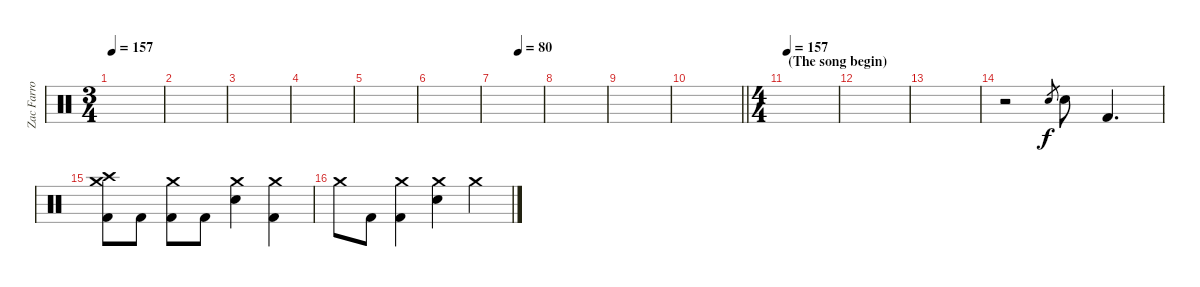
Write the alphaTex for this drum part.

\track ("Zac Farro | Drum" "Zac Farro ") {instrument percussion}
\staff {score}
\articulation defaults
\ts (3 4)
\tempo 157
\clef neutral
\ks c
|
|
|
|
|
|
\tempo (80 0.5)
|
|
|
\barLineRight lightlight
|
\ts (4 4)
\section ("" "(The song begin)")
\tempo 157
|
|
|
r.2 "Electric Snare (hit)".8{gr} "Electric Snare (hit)".8 "Kick (hit) 2".4{d} |
("Crash high (hit)" "Crash medium (hit)" "Kick (hit) 2").8 "Kick (hit) 2".8 ("Crash medium (hit)" "Kick (hit) 2").8 "Kick (hit) 2".8 ("Crash medium (hit)" "Electric Snare (hit)").4 ("Crash medium (hit)" "Kick (hit) 2").4 |
"Crash medium (hit)".8 "Kick (hit) 2".8 ("Crash medium (hit)" "Kick (hit) 2").4 ("Crash medium (hit)" "Electric Snare (hit)").4 "Crash medium (hit)".4
